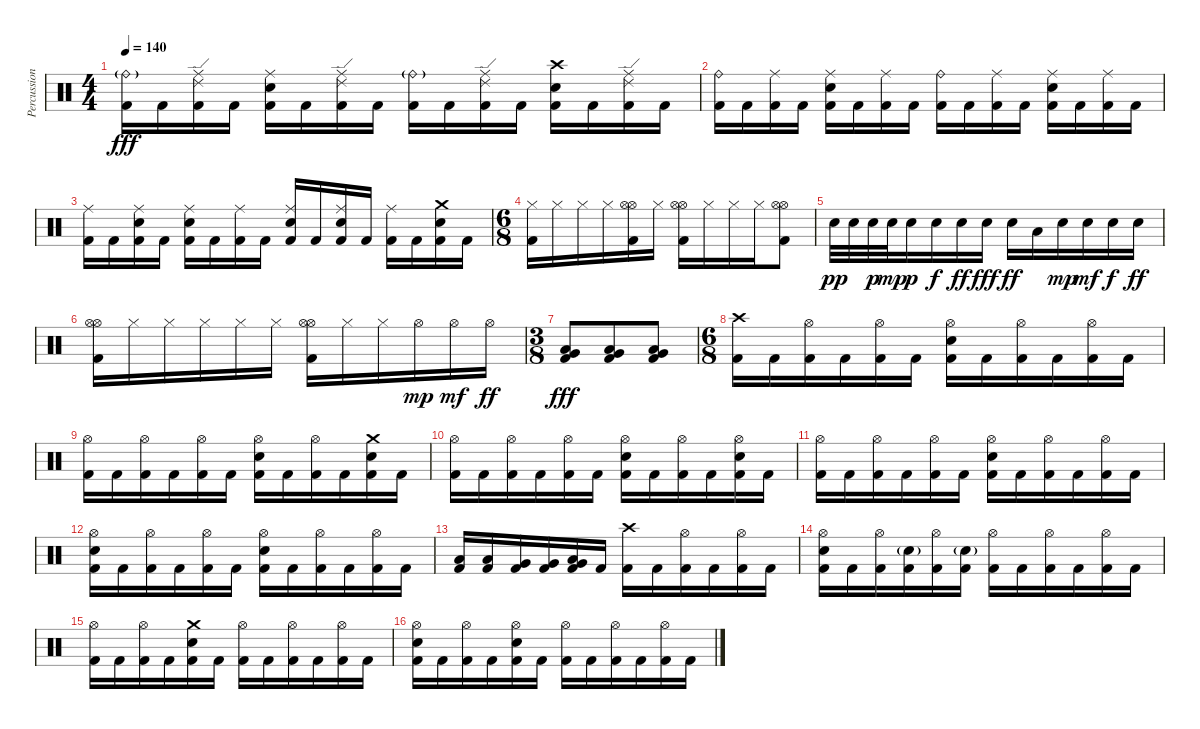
\track ("Percussion" "Percussion") {instrument percussion}
\staff {score}
\articulation defaults
\ts (4 4)
\tempo 140
\clef neutral
\ks c
("Ride (bell)"{g} "Kick (hit) 2").16{dy fff} "Kick (hit) 2".16 ("Ride (edge) 2" "Ride (middle)" "Kick (hit) 2").16 "Kick (hit) 2".16 ("Ride (middle)" "Electric Snare (hit)" "Kick (hit) 2").16 "Kick (hit) 2".16 ("Ride (edge) 2" "Ride (middle)" "Kick (hit) 2").16 "Kick (hit) 2".16 ("Ride (bell)"{g} "Kick (hit) 2").16 "Kick (hit) 2".16 ("Ride (edge) 2" "Ride (middle)" "Kick (hit) 2").16 "Kick (hit) 2".16 ("Crash high (hit)" "Electric Snare (hit)" "Kick (hit) 2").16 "Kick (hit) 2".16 ("Ride (edge) 2" "Ride (middle)" "Kick (hit) 2").16 "Kick (hit) 2".16 |
("Ride (bell)" "Kick (hit) 2").16 "Kick (hit) 2".16 ("Ride (middle)" "Kick (hit) 2").16 "Kick (hit) 2".16 ("Ride (middle)" "Electric Snare (hit)" "Kick (hit) 2").16 "Kick (hit) 2".16 ("Ride (middle)" "Kick (hit) 2").16 "Kick (hit) 2".16 ("Ride (bell)" "Kick (hit) 2").16 "Kick (hit) 2".16 ("Ride (middle)" "Kick (hit) 2").16 "Kick (hit) 2".16 ("Ride (middle)" "Electric Snare (hit)" "Kick (hit) 2").16 "Kick (hit) 2".16 ("Ride (middle)" "Kick (hit) 2").16 "Kick (hit) 2".16 |
("Ride (middle)" "Kick (hit) 2").16 "Kick (hit) 2".16 ("Ride (middle)" "Electric Snare (hit)" "Kick (hit) 2").16 "Kick (hit) 2".16 ("Ride (middle)" "Electric Snare (hit)" "Kick (hit) 2").16 "Kick (hit) 2".16 ("Ride (middle)" "Kick (hit) 2").16 "Kick (hit) 2".16 ("Ride (middle)" "Electric Snare (hit)" "Kick (hit) 2").16 "Kick (hit) 2".16 ("Ride (middle)" "Electric Snare (hit)" "Kick (hit) 2").16 "Kick (hit) 2".16 ("Ride (middle)" "Kick (hit) 2").16 "Kick (hit) 2".16 ("Crash medium (hit)" "Electric Snare (hit)" "Kick (hit) 2").16 "Kick (hit) 2".16 |
\ts (6 8)
("Hi-Hat (closed)" "Kick (hit) 2").16 "Hi-Hat (closed)".16 "Hi-Hat (closed)".16 "Hi-Hat (closed)".16 ("Hi-Hat (open)" "Hi-Hat (open)" "Kick (hit) 2").16 "Hi-Hat (closed)".16 ("Hi-Hat (open)" "Hi-Hat (open)" "Kick (hit) 2").16 "Hi-Hat (closed)".16 "Hi-Hat (closed)".16 "Hi-Hat (closed)".16 ("Hi-Hat (open)" "Hi-Hat (open)" "Kick (hit) 2").8 |
"Electric Snare (hit)".32{dy pp} "Electric Snare (hit)".32 "Electric Snare (hit)".32{dy p} "Electric Snare (hit)".32{dy mp} "Electric Snare (hit)".16{dy p} "Electric Snare (hit)".16{dy f} "Electric Snare (hit)".16{dy ff} "Electric Snare (hit)".16{dy fff} "Electric Snare (hit)".16{dy ff} "Low Floor Tom (hit)".16 "Electric Snare (hit)".16{dy mp} "Electric Snare (hit)".16{dy mf} "Electric Snare (hit)".16{dy f} "Electric Snare (hit)".16{dy ff} |
("Hi-Hat (open)" "Hi-Hat (open)" "Kick (hit) 2").16 "Hi-Hat (closed)".16 "Hi-Hat (closed)".16 "Hi-Hat (closed)".16 "Hi-Hat (closed)".16 "Hi-Hat (closed)".16 ("Hi-Hat (open)" "Hi-Hat (open)" "Kick (hit) 2").16 "Hi-Hat (closed)".16 "Hi-Hat (closed)".16 "Hi-Hat (open)".16{dy mp} "Hi-Hat (open)".16{dy mf} "Hi-Hat (open)".16{dy ff} |
\ts (3 8)
("Very Low Tom (hit)" "Low Floor Tom (hit)" "Kick (hit) 2").8{dy fff} ("Very Low Tom (hit)" "Low Floor Tom (hit)" "Kick (hit) 2").8 ("Very Low Tom (hit)" "Low Floor Tom (hit)" "Kick (hit) 2").8 |
\ts (6 8)
("Crash high (hit)" "Kick (hit) 2").16 "Kick (hit) 2".16 ("Hi-Hat (open)" "Kick (hit) 2").16 "Kick (hit) 2".16 ("Hi-Hat (open)" "Kick (hit) 2").16 "Kick (hit) 2".16 ("Hi-Hat (open)" "Electric Snare (hit)" "Kick (hit) 2").16 "Kick (hit) 2".16 ("Hi-Hat (open)" "Kick (hit) 2").16 "Kick (hit) 2".16 ("Hi-Hat (open)" "Kick (hit) 2").16 "Kick (hit) 2".16 |
("Hi-Hat (open)" "Kick (hit) 2").16 "Kick (hit) 2".16 ("Hi-Hat (open)" "Kick (hit) 2").16 "Kick (hit) 2".16 ("Hi-Hat (open)" "Kick (hit) 2").16 "Kick (hit) 2".16 ("Hi-Hat (open)" "Electric Snare (hit)" "Kick (hit) 2").16 "Kick (hit) 2".16 ("Hi-Hat (open)" "Kick (hit) 2").16 "Kick (hit) 2".16 ("Crash medium (hit)" "Electric Snare (hit)" "Kick (hit) 2").16 "Kick (hit) 2".16 |
("Hi-Hat (open)" "Kick (hit) 2").16 "Kick (hit) 2".16 ("Hi-Hat (open)" "Kick (hit) 2").16 "Kick (hit) 2".16 ("Hi-Hat (open)" "Kick (hit) 2").16 "Kick (hit) 2".16 ("Hi-Hat (open)" "Electric Snare (hit)" "Kick (hit) 2").16 "Kick (hit) 2".16 ("Hi-Hat (open)" "Kick (hit) 2").16 "Kick (hit) 2".16 ("Hi-Hat (open)" "Electric Snare (hit)" "Kick (hit) 2").16 "Kick (hit) 2".16 |
("Hi-Hat (open)" "Kick (hit) 2").16 "Kick (hit) 2".16 ("Hi-Hat (open)" "Kick (hit) 2").16 "Kick (hit) 2".16 ("Hi-Hat (open)" "Kick (hit) 2").16 "Kick (hit) 2".16 ("Hi-Hat (open)" "Electric Snare (hit)" "Kick (hit) 2").16 "Kick (hit) 2".16 ("Hi-Hat (open)" "Kick (hit) 2").16 "Kick (hit) 2".16 ("Hi-Hat (open)" "Kick (hit) 2").16 "Kick (hit) 2".16 |
("Hi-Hat (open)" "Electric Snare (hit)" "Kick (hit) 2").16 "Kick (hit) 2".16 ("Hi-Hat (open)" "Kick (hit) 2").16 "Kick (hit) 2".16 ("Hi-Hat (open)" "Kick (hit) 2").16 "Kick (hit) 2".16 ("Hi-Hat (open)" "Electric Snare (hit)" "Kick (hit) 2").16 "Kick (hit) 2".16 ("Hi-Hat (open)" "Kick (hit) 2").16 "Kick (hit) 2".16 ("Hi-Hat (open)" "Kick (hit) 2").16 "Kick (hit) 2".16 |
("Low Tom (hit)" "Kick (hit) 2").16 ("Low Tom (hit)" "Kick (hit) 2").16 ("Very Low Tom (hit)" "Kick (hit) 2").16 ("Very Low Tom (hit)" "Kick (hit) 2").16 ("Very Low Tom (hit)" "Low Floor Tom (hit)" "Kick (hit) 2").16 "Kick (hit) 2".16 ("Crash high (hit)" "Kick (hit) 2").16 "Kick (hit) 2".16 ("Hi-Hat (open)" "Kick (hit) 2").16 "Kick (hit) 2".16 ("Hi-Hat (open)" "Kick (hit) 2").16 "Kick (hit) 2".16 |
("Hi-Hat (open)" "Electric Snare (hit)" "Kick (hit) 2").16 "Kick (hit) 2".16 ("Hi-Hat (open)" "Kick (hit) 2").16 ("Electric Snare (hit)"{g} "Kick (hit) 2").16 ("Hi-Hat (open)" "Kick (hit) 2").16 ("Electric Snare (hit)"{g} "Kick (hit) 2").16 ("Hi-Hat (open)" "Kick (hit) 2").16 "Kick (hit) 2".16 ("Hi-Hat (open)" "Kick (hit) 2").16 "Kick (hit) 2".16 ("Hi-Hat (open)" "Kick (hit) 2").16 "Kick (hit) 2".16 |
("Hi-Hat (open)" "Kick (hit) 2").16 "Kick (hit) 2".16 ("Hi-Hat (open)" "Kick (hit) 2").16 "Kick (hit) 2".16 ("Crash medium (hit)" "Electric Snare (hit)" "Kick (hit) 2").16 "Kick (hit) 2".16 ("Hi-Hat (open)" "Kick (hit) 2").16 "Kick (hit) 2".16 ("Hi-Hat (open)" "Kick (hit) 2").16 "Kick (hit) 2".16 ("Hi-Hat (open)" "Kick (hit) 2").16 "Kick (hit) 2".16 |
("Hi-Hat (open)" "Electric Snare (hit)" "Kick (hit) 2").16 "Kick (hit) 2".16 ("Hi-Hat (open)" "Kick (hit) 2").16 "Kick (hit) 2".16 ("Hi-Hat (open)" "Electric Snare (hit)" "Kick (hit) 2").16 "Kick (hit) 2".16 ("Hi-Hat (open)" "Kick (hit) 2").16 "Kick (hit) 2".16 ("Hi-Hat (open)" "Kick (hit) 2").16 "Kick (hit) 2".16 ("Hi-Hat (open)" "Kick (hit) 2").16 "Kick (hit) 2".16
